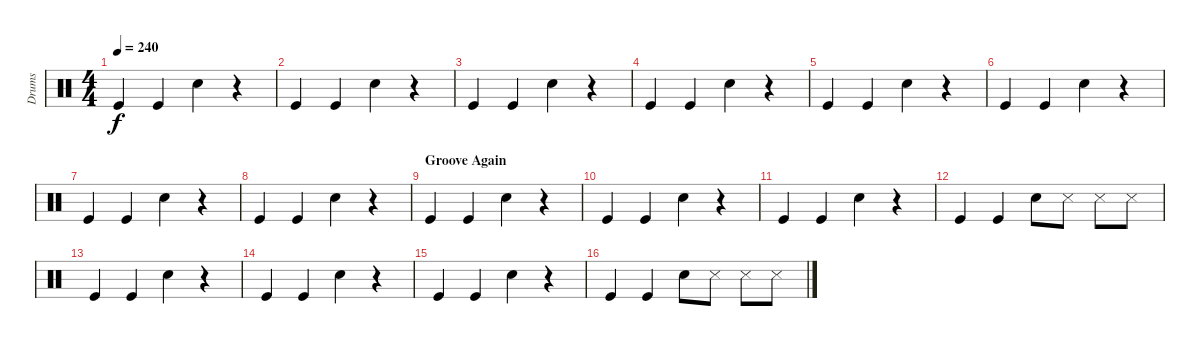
\track ("Drums" "Drums") {instrument percussion}
\staff {score}
\articulation defaults
\ts (4 4)
\tempo 240
\clef neutral
\ks c "Kick (hit)".4{dy f} "Kick (hit)".4 "Snare (hit) 2".4
r.4 |
"Kick (hit)".4 "Kick (hit)".4 "Snare (hit) 2".4 r.4 |
"Kick (hit)".4 "Kick (hit)".4 "Snare (hit) 2".4 r.4 |
"Kick (hit)".4 "Kick (hit)".4 "Snare (hit) 2".4 r.4 |
"Kick (hit)".4 "Kick (hit)".4 "Snare (hit) 2".4 r.4 |
"Kick (hit)".4 "Kick (hit)".4 "Snare (hit) 2".4 r.4 |
"Kick (hit)".4 "Kick (hit)".4 "Snare (hit) 2".4 r.4 |
"Kick (hit)".4 "Kick (hit)".4 "Snare (hit) 2".4 r.4 |
\section ("" "Groove Again")
"Kick (hit)".4 "Kick (hit)".4 "Snare (hit) 2".4 r.4 |
"Kick (hit)".4 "Kick (hit)".4 "Snare (hit) 2".4 r.4 |
"Kick (hit)".4 "Kick (hit)".4 "Snare (hit) 2".4 r.4 |
"Kick (hit)".4 "Kick (hit)".4 "Snare (hit) 2".8 "Snare (side stick) 3".8 "Snare (side stick) 3".8 "Snare (side stick) 3".8 |
"Kick (hit)".4 "Kick (hit)".4 "Snare (hit) 2".4 r.4 |
"Kick (hit)".4 "Kick (hit)".4 "Snare (hit) 2".4 r.4 |
"Kick (hit)".4 "Kick (hit)".4 "Snare (hit) 2".4 r.4 |
"Kick (hit)".4 "Kick (hit)".4 "Snare (hit) 2".8 "Snare (side stick) 3".8 "Snare (side stick) 3".8 "Snare (side stick) 3".8
